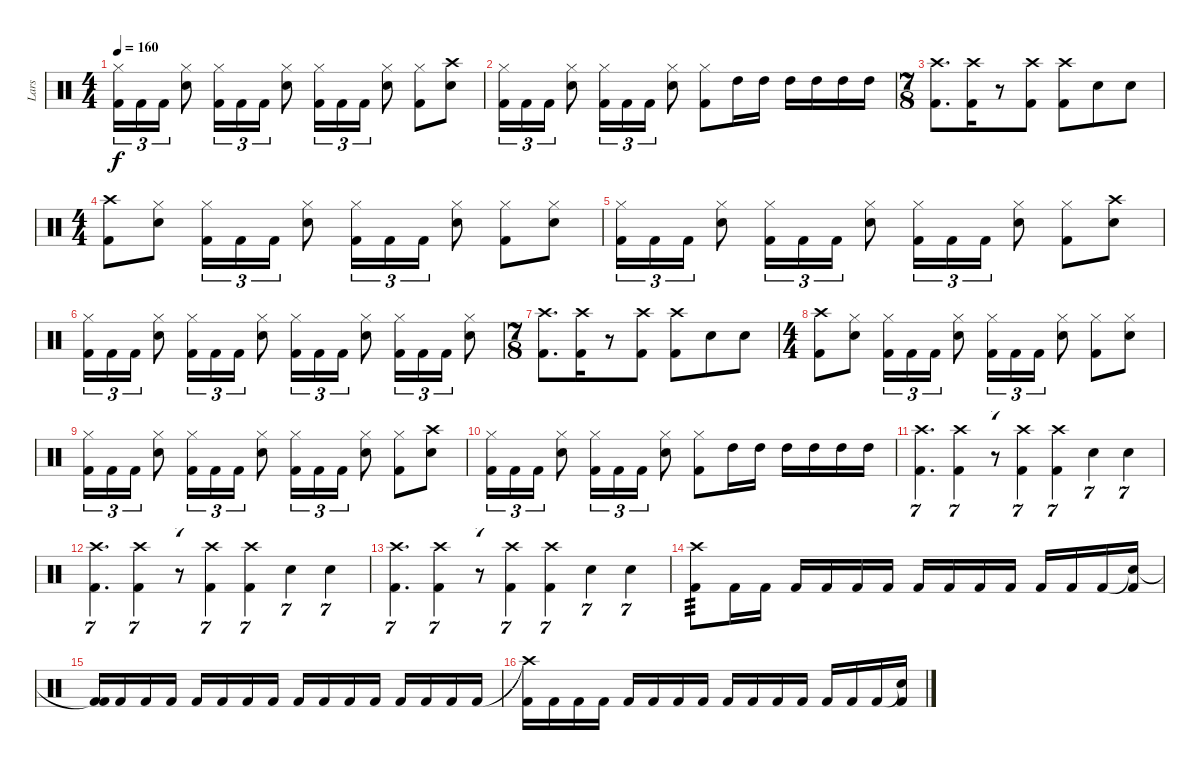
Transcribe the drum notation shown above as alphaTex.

\track ("Lars" "Lars") {instrument percussion}
\staff {score}
\articulation defaults
\ts (4 4)
\tempo 160
\clef neutral
\ks c
("Hi-Hat (closed)" "Kick (hit) 2").16{tu (3 2) dy f} "Kick (hit) 2".16{tu (3 2)} "Kick (hit) 2".16{tu (3 2)} ("Hi-Hat (closed)" "Snare (hit) 2").8 ("Hi-Hat (closed)" "Kick (hit) 2").16{tu (3 2)} "Kick (hit) 2".16{tu (3 2)} "Kick (hit) 2".16{tu (3 2)} ("Hi-Hat (closed)" "Snare (hit) 2").8 ("Hi-Hat (closed)" "Kick (hit) 2").16{tu (3 2)} "Kick (hit) 2".16{tu (3 2)} "Kick (hit) 2".16{tu (3 2)} ("Hi-Hat (closed)" "Snare (hit) 2").8 ("Hi-Hat (closed)" "Kick (hit) 2").8 ("Crash high (hit)" "Snare (hit) 2").8 |
("Hi-Hat (closed)" "Kick (hit) 2").16{tu (3 2)} "Kick (hit) 2".16{tu (3 2)} "Kick (hit) 2".16{tu (3 2)} ("Hi-Hat (closed)" "Snare (hit) 2").8 ("Hi-Hat (closed)" "Kick (hit) 2").16{tu (3 2)} "Kick (hit) 2".16{tu (3 2)} "Kick (hit) 2".16{tu (3 2)} ("Hi-Hat (closed)" "Snare (hit) 2").8 ("Hi-Hat (closed)" "Kick (hit) 2").8 "High Tom (hit)".16 "High Tom (hit)".16 "High Tom (hit)".16 "High Tom (hit)".16 "High Tom (hit)".16 "High Tom (hit)".16 |
\ts (7 8)
("Crash high (hit)" "Kick (hit) 2").8{d} ("Crash high (hit)" "Kick (hit) 2").16 r.8 ("Crash high (hit)" "Kick (hit) 2").8 ("Crash high (hit)" "Kick (hit) 2").8 "Snare (hit) 2".8 "Snare (hit) 2".8 |
\ts (4 4)
("Crash high (hit)" "Kick (hit) 2").8 ("Hi-Hat (closed)" "Snare (hit) 2").8 ("Hi-Hat (closed)" "Kick (hit) 2").16{tu (3 2)} "Kick (hit) 2".16{tu (3 2)} "Kick (hit) 2".16{tu (3 2)} ("Hi-Hat (closed)" "Snare (hit) 2").8 ("Hi-Hat (closed)" "Kick (hit) 2").16{tu (3 2)} "Kick (hit) 2".16{tu (3 2)} "Kick (hit) 2".16{tu (3 2)} ("Hi-Hat (closed)" "Snare (hit) 2").8 ("Hi-Hat (closed)" "Kick (hit) 2").8 ("Hi-Hat (closed)" "Snare (hit) 2").8 |
("Hi-Hat (closed)" "Kick (hit) 2").16{tu (3 2)} "Kick (hit) 2".16{tu (3 2)} "Kick (hit) 2".16{tu (3 2)} ("Hi-Hat (closed)" "Snare (hit) 2").8 ("Hi-Hat (closed)" "Kick (hit) 2").16{tu (3 2)} "Kick (hit) 2".16{tu (3 2)} "Kick (hit) 2".16{tu (3 2)} ("Hi-Hat (closed)" "Snare (hit) 2").8 ("Hi-Hat (closed)" "Kick (hit) 2").16{tu (3 2)} "Kick (hit) 2".16{tu (3 2)} "Kick (hit) 2".16{tu (3 2)} ("Hi-Hat (closed)" "Snare (hit) 2").8 ("Hi-Hat (closed)" "Kick (hit) 2").8 ("Crash high (hit)" "Snare (hit) 2").8 |
("Hi-Hat (closed)" "Kick (hit) 2").16{tu (3 2)} "Kick (hit) 2".16{tu (3 2)} "Kick (hit) 2".16{tu (3 2)} ("Hi-Hat (closed)" "Snare (hit) 2").8 ("Hi-Hat (closed)" "Kick (hit) 2").16{tu (3 2)} "Kick (hit) 2".16{tu (3 2)} "Kick (hit) 2".16{tu (3 2)} ("Hi-Hat (closed)" "Snare (hit) 2").8 ("Hi-Hat (closed)" "Kick (hit) 2").16{tu (3 2)} "Kick (hit) 2".16{tu (3 2)} "Kick (hit) 2".16{tu (3 2)} ("Hi-Hat (closed)" "Snare (hit) 2").8 ("Hi-Hat (closed)" "Kick (hit) 2").16{tu (3 2)} "Kick (hit) 2".16{tu (3 2)} "Kick (hit) 2".16{tu (3 2)} ("Hi-Hat (closed)" "Snare (hit) 2").8 |
\ts (7 8)
("Crash high (hit)" "Kick (hit) 2").8{d} ("Crash high (hit)" "Kick (hit) 2").16 r.8 ("Crash high (hit)" "Kick (hit) 2").8 ("Crash high (hit)" "Kick (hit) 2").8 "Snare (hit) 2".8 "Snare (hit) 2".8 |
\ts (4 4)
("Crash high (hit)" "Kick (hit) 2").8 ("Hi-Hat (closed)" "Snare (hit) 2").8 ("Hi-Hat (closed)" "Kick (hit) 2").16{tu (3 2)} "Kick (hit) 2".16{tu (3 2)} "Kick (hit) 2".16{tu (3 2)} ("Hi-Hat (closed)" "Snare (hit) 2").8 ("Hi-Hat (closed)" "Kick (hit) 2").16{tu (3 2)} "Kick (hit) 2".16{tu (3 2)} "Kick (hit) 2".16{tu (3 2)} ("Hi-Hat (closed)" "Snare (hit) 2").8 ("Hi-Hat (closed)" "Kick (hit) 2").8 ("Hi-Hat (closed)" "Snare (hit) 2").8 |
("Hi-Hat (closed)" "Kick (hit) 2").16{tu (3 2)} "Kick (hit) 2".16{tu (3 2)} "Kick (hit) 2".16{tu (3 2)} ("Hi-Hat (closed)" "Snare (hit) 2").8 ("Hi-Hat (closed)" "Kick (hit) 2").16{tu (3 2)} "Kick (hit) 2".16{tu (3 2)} "Kick (hit) 2".16{tu (3 2)} ("Hi-Hat (closed)" "Snare (hit) 2").8 ("Hi-Hat (closed)" "Kick (hit) 2").16{tu (3 2)} "Kick (hit) 2".16{tu (3 2)} "Kick (hit) 2".16{tu (3 2)} ("Hi-Hat (closed)" "Snare (hit) 2").8 ("Hi-Hat (closed)" "Kick (hit) 2").8 ("Crash high (hit)" "Snare (hit) 2").8 |
("Hi-Hat (closed)" "Kick (hit) 2").16{tu (3 2)} "Kick (hit) 2".16{tu (3 2)} "Kick (hit) 2".16{tu (3 2)} ("Hi-Hat (closed)" "Snare (hit) 2").8 ("Hi-Hat (closed)" "Kick (hit) 2").16{tu (3 2)} "Kick (hit) 2".16{tu (3 2)} "Kick (hit) 2".16{tu (3 2)} ("Hi-Hat (closed)" "Snare (hit) 2").8 ("Hi-Hat (closed)" "Kick (hit) 2").8 "High Tom (hit)".16 "High Tom (hit)".16 "High Tom (hit)".16 "High Tom (hit)".16 "High Tom (hit)".16 "High Tom (hit)".16 |
("Crash high (hit)" "Kick (hit) 2").4{d tu (7 4)} ("Crash high (hit)" "Kick (hit) 2").4{tu (7 4)} r.8{tu (7 4)} ("Crash high (hit)" "Kick (hit) 2").4{tu (7 4)} ("Crash high (hit)" "Kick (hit) 2").4{tu (7 4)} "Snare (hit) 2".4{tu (7 4)} "Snare (hit) 2".4{tu (7 4)} |
("Crash high (hit)" "Kick (hit) 2").4{d tu (7 4)} ("Crash high (hit)" "Kick (hit) 2").4{tu (7 4)} r.8{tu (7 4)} ("Crash high (hit)" "Kick (hit) 2").4{tu (7 4)} ("Crash high (hit)" "Kick (hit) 2").4{tu (7 4)} "Snare (hit) 2".4{tu (7 4)} "Snare (hit) 2".4{tu (7 4)} |
("Crash high (hit)" "Kick (hit) 2").4{d tu (7 4)} ("Crash high (hit)" "Kick (hit) 2").4{tu (7 4)} r.8{tu (7 4)} ("Crash high (hit)" "Kick (hit) 2").4{tu (7 4)} ("Crash high (hit)" "Kick (hit) 2").4{tu (7 4)} "Snare (hit) 2".4{tu (7 4)} "Snare (hit) 2".4{tu (7 4)} |
("Crash high (hit)" "Kick (hit) 2").8{tp 3} "Kick (hit) 2".16 "Kick (hit) 2".16 "Kick (hit) 2".16 "Kick (hit) 2".16 "Kick (hit) 2".16 "Kick (hit) 2".16 "Kick (hit) 2".16 "Kick (hit) 2".16 "Kick (hit) 2".16 "Kick (hit) 2".16 "Kick (hit) 2".16 "Kick (hit) 2".16 "Kick (hit) 2".16 ("Snare (hit)"{t} "Kick (hit) 2").16 |
("Kick (hit) 2"{t} "Kick (hit) 2").16 "Kick (hit) 2".16 "Kick (hit) 2".16 "Kick (hit) 2".16 "Kick (hit) 2".16 "Kick (hit) 2".16 "Kick (hit) 2".16 "Kick (hit) 2".16 "Kick (hit) 2".16 "Kick (hit) 2".16 "Kick (hit) 2".16 "Kick (hit) 2".16 "Kick (hit) 2".16 "Kick (hit) 2".16 "Kick (hit) 2".16 "Kick (hit) 2".16 |
("Crash high (hit)"{t} "Kick (hit) 2").16 "Kick (hit) 2".16 "Kick (hit) 2".16 "Kick (hit) 2".16 "Kick (hit) 2".16 "Kick (hit) 2".16 "Kick (hit) 2".16 "Kick (hit) 2".16 "Kick (hit) 2".16 "Kick (hit) 2".16 "Kick (hit) 2".16 "Kick (hit) 2".16 "Kick (hit) 2".16 "Kick (hit) 2".16 "Kick (hit) 2".16 ("Snare (hit)"{t} "Kick (hit) 2").16
